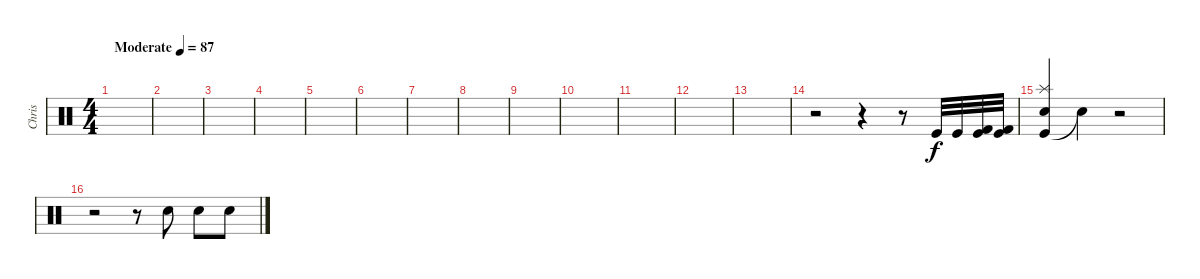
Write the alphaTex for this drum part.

\track ("Chris" "Chris") {instrument percussion}
\staff {score}
\articulation defaults
\ts (4 4)
\tempo (87 "Moderate")
\clef neutral
\ks c
|
|
|
|
|
|
|
|
|
|
|
|
|
r.2 r.4 r.8 "Kick (hit)".32 "Kick (hit)".32 ("Kick (hit)" "Kick (hit) 2").32 ("Kick (hit)" "Kick (hit) 2").32 |
("Kick (hit)" "Splash (hit)" "Snare (hit) 2").4 "Snare (hit)"{t}.4 r.2 |
r.2 r.8 "Hand Clap (hit)".8 "Hand Clap (hit)".8 "Hand Clap (hit)".8
